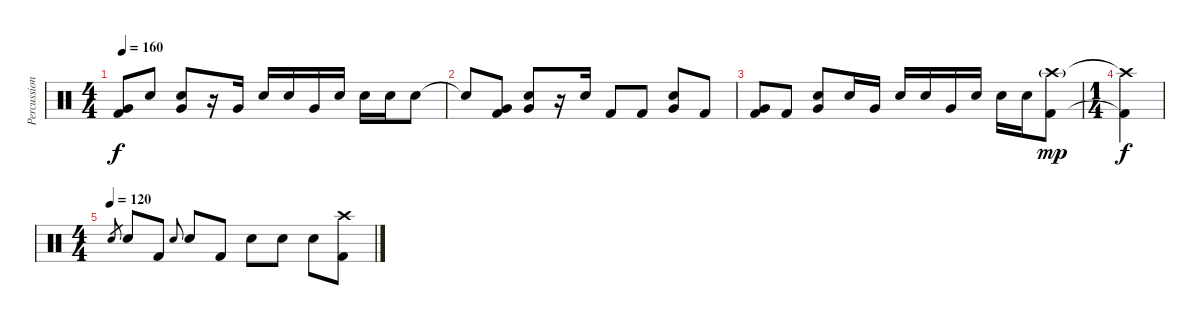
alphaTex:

\track ("Percussion" "Percussion") {instrument percussion}
\staff {score}
\articulation defaults
\ts (4 4)
\tempo 160
\clef neutral
\ks c
("Very Low Tom (hit)" "Kick (hit) 2").8{dy f} "Snare (hit) 2".8 ("Snare (hit) 2" "Very Low Tom (hit)").8 r.16 "Very Low Tom (hit)".16 "Snare (hit) 2".16 "Snare (hit) 2".16 "Very Low Tom (hit)".16 "Snare (hit) 2".16 "Snare (hit) 2".16 "Snare (hit) 2".16 "Snare (hit) 2".8 |
"Snare (hit) 2"{t}.8 ("Very Low Tom (hit)" "Kick (hit) 2").8 ("Snare (hit) 2" "Very Low Tom (hit)").8 r.16 "Snare (hit) 2".16 "Kick (hit) 2".8 "Kick (hit) 2".8 ("Snare (hit) 2" "Very Low Tom (hit)").8 "Kick (hit) 2".8 |
("Very Low Tom (hit)" "Kick (hit) 2").8 "Kick (hit) 2".8 ("Snare (hit) 2" "Very Low Tom (hit)").8 "Snare (hit) 2".16 "Very Low Tom (hit)".16 "Snare (hit) 2".16 "Snare (hit) 2".16 "Very Low Tom (hit)".16 "Snare (hit) 2".16 "Snare (hit) 2".16 "Snare (hit) 2".16 ("Crash high (hit)"{g} "Kick (hit) 2").8{dy mp} |
\ts (1 4)
("Crash high (hit)"{t} "Kick (hit) 2"{t}).4{dy f} |
\ts (4 4)
\tempo (120)
"Snare (hit) 2".8{gr} "Snare (hit) 2".8 "Kick (hit) 2".8 "Snare (hit) 2".8{gr onbeat} "Snare (hit) 2".8 "Kick (hit) 2".8 "Snare (hit) 2".8 "Snare (hit) 2".8 "Snare (hit) 2".8 ("Crash high (hit)" "Kick (hit) 2").8
